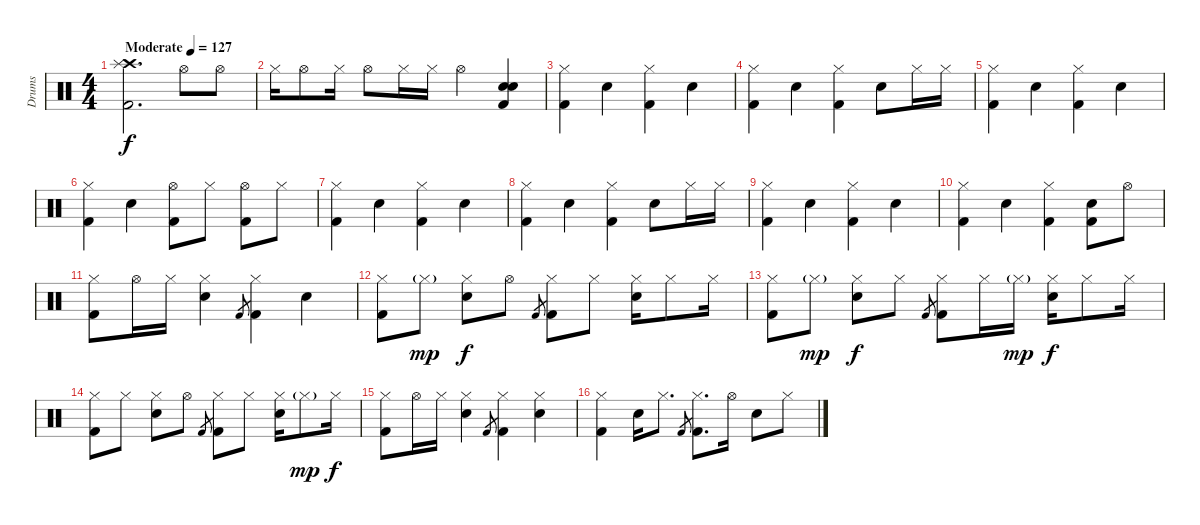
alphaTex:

\track ("Drums" "Drums") {instrument percussion}
\staff {score}
\articulation defaults
\ts (4 4)
\tempo (127 "Moderate")
\clef neutral
\ks c
("Crash high (hit)" "Splash (hit)" "Kick (hit) 2").2{d dy f} "Hi-Hat (open)".8 "Hi-Hat (open)".8 |
"Hi-Hat (closed)".16 "Hi-Hat (open)".8 "Hi-Hat (closed)".16 "Hi-Hat (open)".8 "Hi-Hat (closed)".16 "Hi-Hat (closed)".16 "Hi-Hat (open)".4 ("Snare (hit) 2" "Snare (hit) 2" "Kick (hit) 2").4 |
("Hi-Hat (closed)" "Kick (hit) 2").4 "Snare (hit) 2".4 ("Hi-Hat (closed)" "Kick (hit) 2").4 "Snare (hit) 2".4 |
("Hi-Hat (closed)" "Kick (hit) 2").4 "Snare (hit) 2".4 ("Hi-Hat (closed)" "Kick (hit) 2").4 "Snare (hit) 2".8 "Hi-Hat (closed)".16 "Hi-Hat (closed)".16 |
("Hi-Hat (closed)" "Kick (hit) 2").4 "Snare (hit) 2".4 ("Hi-Hat (closed)" "Kick (hit) 2").4 "Snare (hit) 2".4 |
("Hi-Hat (closed)" "Kick (hit) 2").4 "Snare (hit) 2".4 ("Hi-Hat (open)" "Kick (hit) 2").8 "Hi-Hat (closed)".8 ("Hi-Hat (open)" "Kick (hit) 2").8 "Hi-Hat (closed)".8 |
("Hi-Hat (closed)" "Kick (hit) 2").4 "Snare (hit) 2".4 ("Hi-Hat (closed)" "Kick (hit) 2").4 "Snare (hit) 2".4 |
("Hi-Hat (closed)" "Kick (hit) 2").4 "Snare (hit) 2".4 ("Hi-Hat (closed)" "Kick (hit) 2").4 "Snare (hit) 2".8 "Hi-Hat (closed)".16 "Hi-Hat (closed)".16 |
("Hi-Hat (closed)" "Kick (hit) 2").4 "Snare (hit) 2".4 ("Hi-Hat (closed)" "Kick (hit) 2").4 "Snare (hit) 2".4 |
("Hi-Hat (closed)" "Kick (hit) 2").4 "Snare (hit) 2".4 ("Hi-Hat (closed)" "Kick (hit) 2").4 ("Snare (hit) 2" "Kick (hit) 2").8 "Hi-Hat (open)".8 |
("Hi-Hat (closed)" "Kick (hit) 2").8 "Hi-Hat (open)".16 "Hi-Hat (closed)".16 ("Snare (hit) 2" "Hi-Hat (closed)").4 "Kick (hit) 2".8{gr} ("Hi-Hat (closed)" "Kick (hit) 2").4 "Snare (hit) 2".4 |
("Hi-Hat (closed)" "Kick (hit) 2").8 "Hi-Hat (closed)"{g}.8{dy mp} ("Hi-Hat (closed)" "Snare (hit) 2").8{dy f} "Hi-Hat (open)".8 "Kick (hit) 2".8{gr} ("Hi-Hat (closed)" "Kick (hit) 2").8 "Hi-Hat (closed)".8 ("Hi-Hat (closed)" "Snare (hit) 2").16 "Hi-Hat (closed)".8 "Hi-Hat (closed)".16 |
("Hi-Hat (closed)" "Kick (hit) 2").8 "Hi-Hat (closed)"{g}.8{dy mp} ("Hi-Hat (closed)" "Snare (hit) 2").8{dy f} "Hi-Hat (closed)".8 "Kick (hit) 2".8{gr} ("Hi-Hat (closed)" "Kick (hit) 2").8 "Hi-Hat (closed)".16 "Hi-Hat (closed)"{g}.16{dy mp} ("Hi-Hat (closed)" "Snare (hit) 2").16{dy f} "Hi-Hat (closed)".8 "Hi-Hat (closed)".16 |
("Hi-Hat (closed)" "Kick (hit) 2").8 "Hi-Hat (closed)".8 ("Hi-Hat (closed)" "Snare (hit) 2").8 "Hi-Hat (open)".8 "Kick (hit) 2".8{gr} ("Hi-Hat (closed)" "Kick (hit) 2").8 "Hi-Hat (closed)".8 ("Hi-Hat (closed)" "Snare (hit) 2").16 "Hi-Hat (closed)"{g}.8{dy mp} "Hi-Hat (closed)".16{dy f} |
("Hi-Hat (closed)" "Kick (hit) 2").8 "Hi-Hat (open)".16 "Hi-Hat (closed)".16 ("Snare (hit) 2" "Hi-Hat (closed)").4 "Kick (hit) 2".8{gr} ("Hi-Hat (closed)" "Kick (hit) 2").4 ("Snare (hit) 2" "Hi-Hat (closed)").4 |
("Hi-Hat (closed)" "Kick (hit) 2").4 "Snare (hit) 2".16 "Hi-Hat (closed)".8{d} "Kick (hit) 2".8{gr} ("Hi-Hat (closed)" "Kick (hit) 2").8{d} "Hi-Hat (open)".16 "Snare (hit) 2".8 "Hi-Hat (closed)".8
